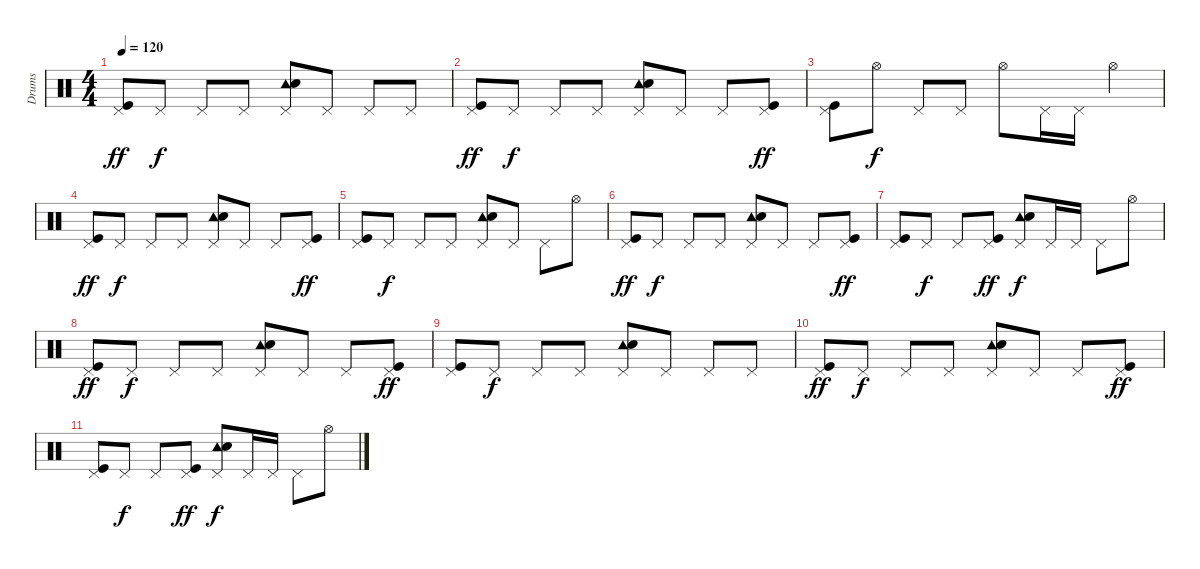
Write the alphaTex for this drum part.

\track ("Drums" "Drums") {instrument percussion}
\staff {score}
\articulation defaults
\ts (4 4)
\tempo 120
\clef neutral
\ks c
("Pedal Hi-Hat (hit)" "Kick (hit)").8{dy ff} "Pedal Hi-Hat (hit)".8{dy f} "Pedal Hi-Hat (hit)".8 "Pedal Hi-Hat (hit)".8 ("Pedal Hi-Hat (hit)" "Tambourine (hit)" "Electric Snare (hit)").8 "Pedal Hi-Hat (hit)".8 "Pedal Hi-Hat (hit)".8 "Pedal Hi-Hat (hit)".8 |
("Pedal Hi-Hat (hit)" "Kick (hit)").8{dy ff volume 12} "Pedal Hi-Hat (hit)".8{dy f} "Pedal Hi-Hat (hit)".8 "Pedal Hi-Hat (hit)".8 ("Pedal Hi-Hat (hit)" "Tambourine (hit)" "Electric Snare (hit)").8 "Pedal Hi-Hat (hit)".8 "Pedal Hi-Hat (hit)".8 ("Pedal Hi-Hat (hit)" "Kick (hit)").8{dy ff} |
("Pedal Hi-Hat (hit)" "Kick (hit)").8 "Hi-Hat (open)".8{dy f} "Pedal Hi-Hat (hit)".8 "Pedal Hi-Hat (hit)".8 "Hi-Hat (open)".8 "Pedal Hi-Hat (hit)".16 "Pedal Hi-Hat (hit)".16 "Hi-Hat (open)".4 |
("Pedal Hi-Hat (hit)" "Kick (hit)").8{dy ff volume 10} "Pedal Hi-Hat (hit)".8{dy f} "Pedal Hi-Hat (hit)".8 "Pedal Hi-Hat (hit)".8 ("Pedal Hi-Hat (hit)" "Tambourine (hit)" "Electric Snare (hit)").8 "Pedal Hi-Hat (hit)".8 "Pedal Hi-Hat (hit)".8 ("Pedal Hi-Hat (hit)" "Kick (hit)").8{dy ff} |
("Pedal Hi-Hat (hit)" "Kick (hit)").8 "Pedal Hi-Hat (hit)".8{dy f} "Pedal Hi-Hat (hit)".8 "Pedal Hi-Hat (hit)".8 ("Pedal Hi-Hat (hit)" "Tambourine (hit)" "Electric Snare (hit)").8 "Pedal Hi-Hat (hit)".8 "Pedal Hi-Hat (hit)".8 "Hi-Hat (open)".8 |
("Pedal Hi-Hat (hit)" "Kick (hit)").8{dy ff volume 9} "Pedal Hi-Hat (hit)".8{dy f} "Pedal Hi-Hat (hit)".8 "Pedal Hi-Hat (hit)".8 ("Pedal Hi-Hat (hit)" "Tambourine (hit)" "Electric Snare (hit)").8 "Pedal Hi-Hat (hit)".8 "Pedal Hi-Hat (hit)".8 ("Pedal Hi-Hat (hit)" "Kick (hit)").8{dy ff} |
("Pedal Hi-Hat (hit)" "Kick (hit)").8 "Pedal Hi-Hat (hit)".8{dy f} "Pedal Hi-Hat (hit)".8 ("Pedal Hi-Hat (hit)" "Kick (hit)").8{dy ff} ("Pedal Hi-Hat (hit)" "Tambourine (hit)" "Electric Snare (hit)").8{dy f} "Pedal Hi-Hat (hit)".16 "Pedal Hi-Hat (hit)".16 "Pedal Hi-Hat (hit)".8 "Hi-Hat (open)".8 |
("Pedal Hi-Hat (hit)" "Kick (hit)").8{dy ff volume 8} "Pedal Hi-Hat (hit)".8{dy f} "Pedal Hi-Hat (hit)".8 "Pedal Hi-Hat (hit)".8 ("Pedal Hi-Hat (hit)" "Tambourine (hit)" "Electric Snare (hit)").8 "Pedal Hi-Hat (hit)".8 "Pedal Hi-Hat (hit)".8 ("Pedal Hi-Hat (hit)" "Kick (hit)").8{dy ff} |
("Pedal Hi-Hat (hit)" "Kick (hit)").8 "Pedal Hi-Hat (hit)".8{dy f} "Pedal Hi-Hat (hit)".8 "Pedal Hi-Hat (hit)".8 ("Pedal Hi-Hat (hit)" "Tambourine (hit)" "Electric Snare (hit)").8 "Pedal Hi-Hat (hit)".8 "Pedal Hi-Hat (hit)".8 "Pedal Hi-Hat (hit)".8 |
("Pedal Hi-Hat (hit)" "Kick (hit)").8{dy ff volume 6} "Pedal Hi-Hat (hit)".8{dy f} "Pedal Hi-Hat (hit)".8 "Pedal Hi-Hat (hit)".8 ("Pedal Hi-Hat (hit)" "Tambourine (hit)" "Electric Snare (hit)").8 "Pedal Hi-Hat (hit)".8 "Pedal Hi-Hat (hit)".8 ("Pedal Hi-Hat (hit)" "Kick (hit)").8{dy ff} |
("Pedal Hi-Hat (hit)" "Kick (hit)").8 "Pedal Hi-Hat (hit)".8{dy f} "Pedal Hi-Hat (hit)".8 ("Pedal Hi-Hat (hit)" "Kick (hit)").8{dy ff} ("Pedal Hi-Hat (hit)" "Tambourine (hit)" "Electric Snare (hit)").8{dy f} "Pedal Hi-Hat (hit)".16 "Pedal Hi-Hat (hit)".16 "Pedal Hi-Hat (hit)".8 "Hi-Hat (open)".8
